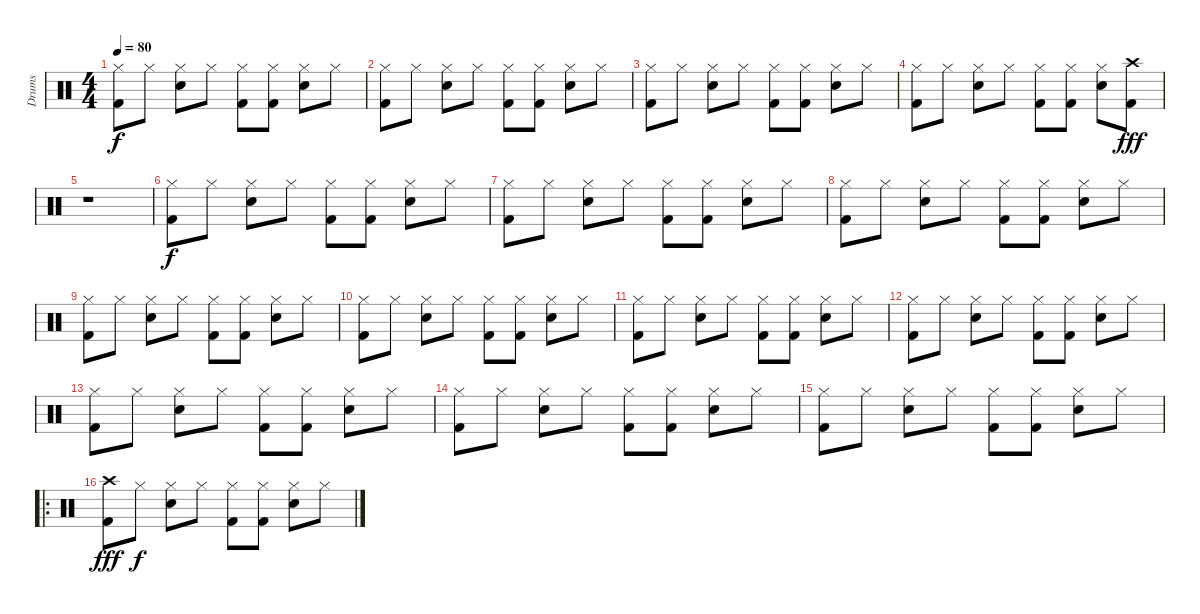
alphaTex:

\track ("Drums" "Drums") {instrument percussion}
\staff {score}
\articulation defaults
\ts (4 4)
\tempo 80
\clef neutral
\ks c
("Hi-Hat (closed)" "Kick (hit) 2").8{dy f} "Hi-Hat (closed)".8 ("Hi-Hat (closed)" "Electric Snare (hit)").8 "Hi-Hat (closed)".8 ("Hi-Hat (closed)" "Kick (hit) 2").8 ("Hi-Hat (closed)" "Kick (hit) 2").8 ("Hi-Hat (closed)" "Electric Snare (hit)").8 "Hi-Hat (closed)".8 |
("Hi-Hat (closed)" "Kick (hit) 2").8 "Hi-Hat (closed)".8 ("Hi-Hat (closed)" "Electric Snare (hit)").8 "Hi-Hat (closed)".8 ("Hi-Hat (closed)" "Kick (hit) 2").8 ("Hi-Hat (closed)" "Kick (hit) 2").8 ("Hi-Hat (closed)" "Electric Snare (hit)").8 "Hi-Hat (closed)".8 |
("Hi-Hat (closed)" "Kick (hit) 2").8 "Hi-Hat (closed)".8 ("Hi-Hat (closed)" "Electric Snare (hit)").8 "Hi-Hat (closed)".8 ("Hi-Hat (closed)" "Kick (hit) 2").8 ("Hi-Hat (closed)" "Kick (hit) 2").8 ("Hi-Hat (closed)" "Electric Snare (hit)").8 "Hi-Hat (closed)".8 |
("Hi-Hat (closed)" "Kick (hit) 2").8 "Hi-Hat (closed)".8 ("Hi-Hat (closed)" "Electric Snare (hit)").8 "Hi-Hat (closed)".8 ("Hi-Hat (closed)" "Kick (hit) 2").8 ("Hi-Hat (closed)" "Kick (hit) 2").8 ("Hi-Hat (closed)" "Electric Snare (hit)").8 ("Crash high (hit)" "Kick (hit) 2").8{dy fff} |
r.1 |
("Hi-Hat (closed)" "Kick (hit) 2").8{dy f} "Hi-Hat (closed)".8 ("Hi-Hat (closed)" "Electric Snare (hit)").8 "Hi-Hat (closed)".8 ("Hi-Hat (closed)" "Kick (hit) 2").8 ("Hi-Hat (closed)" "Kick (hit) 2").8 ("Hi-Hat (closed)" "Electric Snare (hit)").8 "Hi-Hat (closed)".8 |
("Hi-Hat (closed)" "Kick (hit) 2").8 "Hi-Hat (closed)".8 ("Hi-Hat (closed)" "Electric Snare (hit)").8 "Hi-Hat (closed)".8 ("Hi-Hat (closed)" "Kick (hit) 2").8 ("Hi-Hat (closed)" "Kick (hit) 2").8 ("Hi-Hat (closed)" "Electric Snare (hit)").8 "Hi-Hat (closed)".8 |
("Hi-Hat (closed)" "Kick (hit) 2").8 "Hi-Hat (closed)".8 ("Hi-Hat (closed)" "Electric Snare (hit)").8 "Hi-Hat (closed)".8 ("Hi-Hat (closed)" "Kick (hit) 2").8 ("Hi-Hat (closed)" "Kick (hit) 2").8 ("Hi-Hat (closed)" "Electric Snare (hit)").8 "Hi-Hat (closed)".8 |
("Hi-Hat (closed)" "Kick (hit) 2").8 "Hi-Hat (closed)".8 ("Hi-Hat (closed)" "Electric Snare (hit)").8 "Hi-Hat (closed)".8 ("Hi-Hat (closed)" "Kick (hit) 2").8 ("Hi-Hat (closed)" "Kick (hit) 2").8 ("Hi-Hat (closed)" "Electric Snare (hit)").8 "Hi-Hat (closed)".8 |
("Hi-Hat (closed)" "Kick (hit) 2").8 "Hi-Hat (closed)".8 ("Hi-Hat (closed)" "Electric Snare (hit)").8 "Hi-Hat (closed)".8 ("Hi-Hat (closed)" "Kick (hit) 2").8 ("Hi-Hat (closed)" "Kick (hit) 2").8 ("Hi-Hat (closed)" "Electric Snare (hit)").8 "Hi-Hat (closed)".8 |
("Hi-Hat (closed)" "Kick (hit) 2").8 "Hi-Hat (closed)".8 ("Hi-Hat (closed)" "Electric Snare (hit)").8 "Hi-Hat (closed)".8 ("Hi-Hat (closed)" "Kick (hit) 2").8 ("Hi-Hat (closed)" "Kick (hit) 2").8 ("Hi-Hat (closed)" "Electric Snare (hit)").8 "Hi-Hat (closed)".8 |
("Hi-Hat (closed)" "Kick (hit) 2").8 "Hi-Hat (closed)".8 ("Hi-Hat (closed)" "Electric Snare (hit)").8 "Hi-Hat (closed)".8 ("Hi-Hat (closed)" "Kick (hit) 2").8 ("Hi-Hat (closed)" "Kick (hit) 2").8 ("Hi-Hat (closed)" "Electric Snare (hit)").8 "Hi-Hat (closed)".8 |
("Hi-Hat (closed)" "Kick (hit) 2").8 "Hi-Hat (closed)".8 ("Hi-Hat (closed)" "Electric Snare (hit)").8 "Hi-Hat (closed)".8 ("Hi-Hat (closed)" "Kick (hit) 2").8 ("Hi-Hat (closed)" "Kick (hit) 2").8 ("Hi-Hat (closed)" "Electric Snare (hit)").8 "Hi-Hat (closed)".8 |
("Hi-Hat (closed)" "Kick (hit) 2").8 "Hi-Hat (closed)".8 ("Hi-Hat (closed)" "Electric Snare (hit)").8 "Hi-Hat (closed)".8 ("Hi-Hat (closed)" "Kick (hit) 2").8 ("Hi-Hat (closed)" "Kick (hit) 2").8 ("Hi-Hat (closed)" "Electric Snare (hit)").8 "Hi-Hat (closed)".8 |
("Hi-Hat (closed)" "Kick (hit) 2").8 "Hi-Hat (closed)".8 ("Hi-Hat (closed)" "Electric Snare (hit)").8 "Hi-Hat (closed)".8 ("Hi-Hat (closed)" "Kick (hit) 2").8 ("Hi-Hat (closed)" "Kick (hit) 2").8 ("Hi-Hat (closed)" "Electric Snare (hit)").8 "Hi-Hat (closed)".8 |
\ro
("Crash high (hit)" "Kick (hit) 2").8{dy fff} "Hi-Hat (closed)".8{dy f} ("Hi-Hat (closed)" "Electric Snare (hit)").8 "Hi-Hat (closed)".8 ("Hi-Hat (closed)" "Kick (hit) 2").8 ("Hi-Hat (closed)" "Kick (hit) 2").8 ("Hi-Hat (closed)" "Electric Snare (hit)").8 "Hi-Hat (closed)".8
